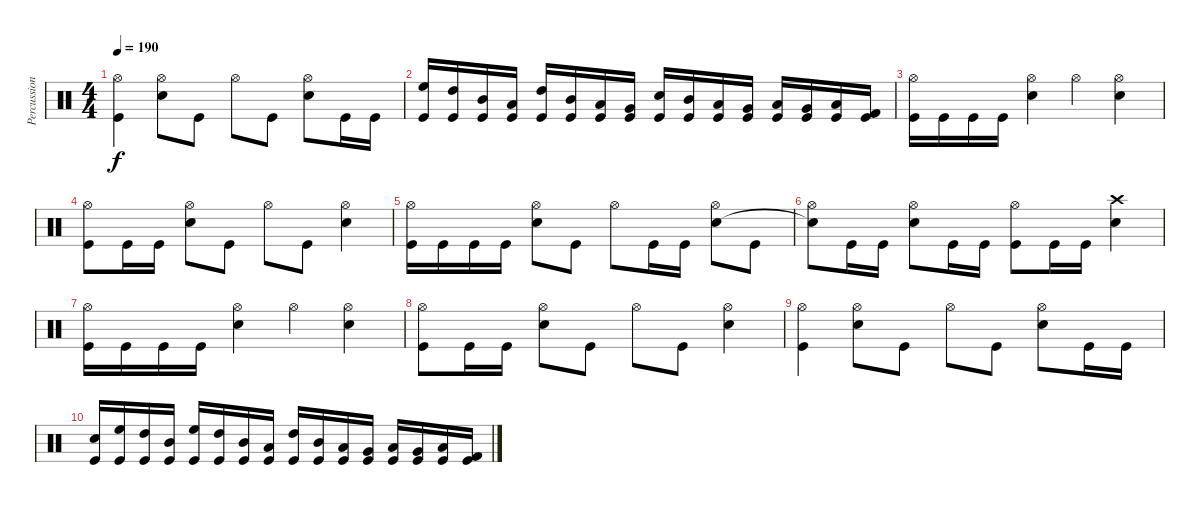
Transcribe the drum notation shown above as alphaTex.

\track ("Percussions" "Percussion") {instrument percussion}
\staff {score}
\articulation defaults
\ts (4 4)
\tempo 190
\clef neutral
\ks c
("Hi-Hat (open)" "Kick (hit)").4{dy f} ("Hi-Hat (open)" "Snare (hit) 2").8 "Kick (hit)".8 "Hi-Hat (open)".8 "Kick (hit)".8 ("Hi-Hat (open)" "Snare (hit) 2").8 "Kick (hit)".16 "Kick (hit)".16 |
("High Floor Tom (hit)" "Kick (hit)").16 ("High Tom (hit)" "Kick (hit)").16 ("Mid Tom (hit)" "Kick (hit)").16 ("Low Tom (hit)" "Kick (hit)").16 ("High Tom (hit)" "Kick (hit)").16 ("Mid Tom (hit)" "Kick (hit)").16 ("Low Tom (hit)" "Kick (hit)").16 ("Very Low Tom (hit)" "Kick (hit)").16 ("Snare (hit) 2" "Kick (hit)").16 ("Mid Tom (hit)" "Kick (hit)").16 ("Low Tom (hit)" "Kick (hit)").16 ("Very Low Tom (hit)" "Kick (hit)").16 ("Low Tom (hit)" "Kick (hit)").16 ("Very Low Tom (hit)" "Kick (hit)").16 ("Low Floor Tom (hit)" "Kick (hit)").16 ("Kick (hit) 2" "Kick (hit)").16 |
("Hi-Hat (open)" "Kick (hit)").16 "Kick (hit)".16 "Kick (hit)".16 "Kick (hit)".16 ("Hi-Hat (open)" "Snare (hit) 2").4 "Hi-Hat (open)".4 ("Hi-Hat (open)" "Snare (hit) 2").4 |
("Hi-Hat (open)" "Kick (hit)").8 "Kick (hit)".16 "Kick (hit)".16 ("Hi-Hat (open)" "Snare (hit) 2").8 "Kick (hit)".8 "Hi-Hat (open)".8 "Kick (hit)".8 ("Hi-Hat (open)" "Snare (hit) 2").4 |
("Hi-Hat (open)" "Kick (hit)").16 "Kick (hit)".16 "Kick (hit)".16 "Kick (hit)".16 ("Hi-Hat (open)" "Snare (hit) 2").8 "Kick (hit)".8 "Hi-Hat (open)".8 "Kick (hit)".16 "Kick (hit)".16 ("Hi-Hat (open)" "Snare (hit) 2").8 "Kick (hit)".8 |
("Hi-Hat (open)" "Snare (hit)"{t}).8 "Kick (hit)".16 "Kick (hit)".16 ("Hi-Hat (open)" "Snare (hit) 2").8 "Kick (hit)".16 "Kick (hit)".16 ("Hi-Hat (open)" "Kick (hit)").8 "Kick (hit)".16 "Kick (hit)".16 ("Crash high (hit)" "Snare (hit) 2").4 |
("Hi-Hat (open)" "Kick (hit)").16 "Kick (hit)".16 "Kick (hit)".16 "Kick (hit)".16 ("Hi-Hat (open)" "Snare (hit) 2").4 "Hi-Hat (open)".4 ("Hi-Hat (open)" "Snare (hit) 2").4 |
("Hi-Hat (open)" "Kick (hit)").8 "Kick (hit)".16 "Kick (hit)".16 ("Hi-Hat (open)" "Snare (hit) 2").8 "Kick (hit)".8 "Hi-Hat (open)".8 "Kick (hit)".8 ("Hi-Hat (open)" "Snare (hit) 2").4 |
("Hi-Hat (open)" "Kick (hit)").4 ("Hi-Hat (open)" "Snare (hit) 2").8 "Kick (hit)".8 "Hi-Hat (open)".8 "Kick (hit)".8 ("Hi-Hat (open)" "Snare (hit) 2").8 "Kick (hit)".16 "Kick (hit)".16 |
("Snare (hit) 2" "Kick (hit)").16 ("High Floor Tom (hit)" "Kick (hit)").16 ("High Tom (hit)" "Kick (hit)").16 ("Mid Tom (hit)" "Kick (hit)").16 ("High Floor Tom (hit)" "Kick (hit)").16 ("High Tom (hit)" "Kick (hit)").16 ("Mid Tom (hit)" "Kick (hit)").16 ("Low Tom (hit)" "Kick (hit)").16 ("High Tom (hit)" "Kick (hit)").16 ("Mid Tom (hit)" "Kick (hit)").16 ("Low Tom (hit)" "Kick (hit)").16 ("Very Low Tom (hit)" "Kick (hit)").16 ("Low Tom (hit)" "Kick (hit)").16 ("Very Low Tom (hit)" "Kick (hit)").16 ("Low Floor Tom (hit)" "Kick (hit)").16 ("Kick (hit) 2" "Kick (hit)").16
